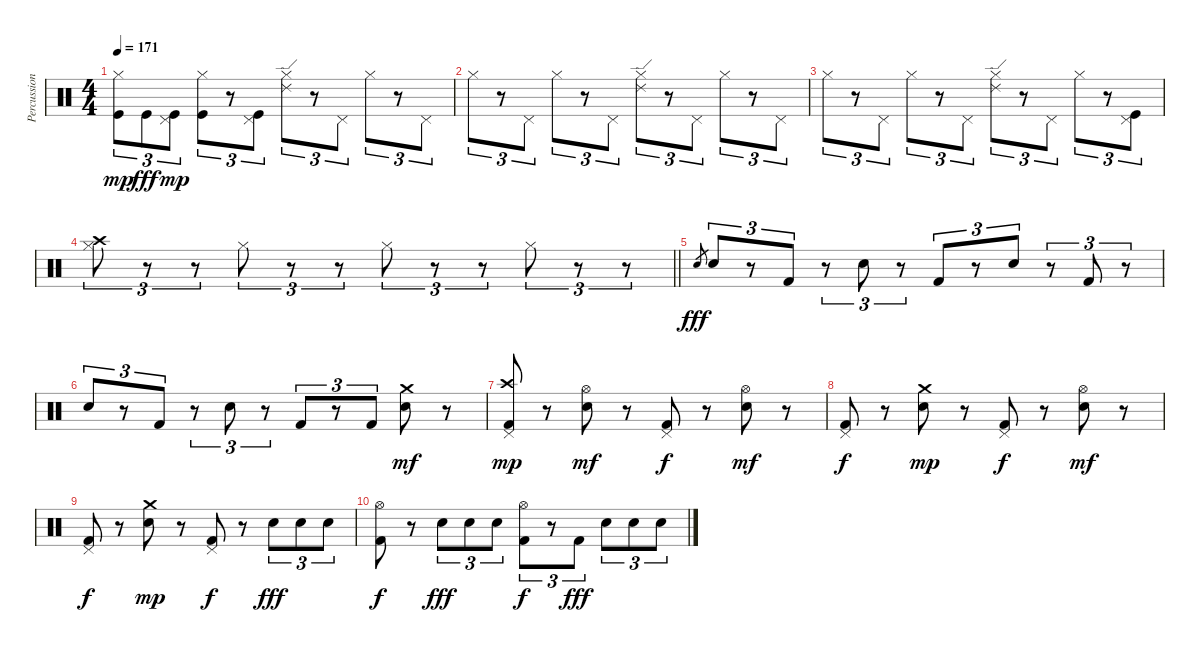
\track ("Percussions" "Percussion") {instrument percussion}
\staff {score}
\articulation defaults
\ts (4 4)
\tempo 171
\clef neutral
\ks c
("Kick (hit)" "Hi-Hat (closed)").8{tu (3 2) dy mp} "Kick (hit)".8{tu (3 2) dy fff} ("Kick (hit)" "Pedal Hi-Hat (hit)").8{tu (3 2) dy mp} ("Kick (hit)" "Hi-Hat (closed)").8{tu (3 2)} r.8{tu (3 2)} ("Kick (hit)" "Pedal Hi-Hat (hit)").8{tu (3 2)} ("Hi-Hat (closed)" "Ride (edge) 2").8{tu (3 2)} r.8{tu (3 2)} "Pedal Hi-Hat (hit)".8{tu (3 2)} "Hi-Hat (closed)".8{tu (3 2)} r.8{tu (3 2)} "Pedal Hi-Hat (hit)".8{tu (3 2)} |
"Hi-Hat (closed)".8{tu (3 2)} r.8{tu (3 2)} "Pedal Hi-Hat (hit)".8{tu (3 2)} "Hi-Hat (closed)".8{tu (3 2)} r.8{tu (3 2)} "Pedal Hi-Hat (hit)".8{tu (3 2)} ("Hi-Hat (closed)" "Ride (edge) 2").8{tu (3 2)} r.8{tu (3 2)} "Pedal Hi-Hat (hit)".8{tu (3 2)} "Hi-Hat (closed)".8{tu (3 2)} r.8{tu (3 2)} "Pedal Hi-Hat (hit)".8{tu (3 2)} |
"Hi-Hat (closed)".8{tu (3 2)} r.8{tu (3 2)} "Pedal Hi-Hat (hit)".8{tu (3 2)} "Hi-Hat (closed)".8{tu (3 2)} r.8{tu (3 2)} "Pedal Hi-Hat (hit)".8{tu (3 2)} ("Hi-Hat (closed)" "Ride (edge) 2").8{tu (3 2)} r.8{tu (3 2)} "Pedal Hi-Hat (hit)".8{tu (3 2)} "Hi-Hat (closed)".8{tu (3 2)} r.8{tu (3 2)} ("Kick (hit)" "Pedal Hi-Hat (hit)").8{tu (3 2)} |
\barLineRight lightlight
("Hi-Hat (closed)" "Crash high (hit)").8{tu (3 2)} r.8{tu (3 2)} r.8{tu (3 2)} "Hi-Hat (closed)".8{tu (3 2)} r.8{tu (3 2)} r.8{tu (3 2)} "Hi-Hat (closed)".8{tu (3 2)} r.8{tu (3 2)} r.8{tu (3 2)} "Hi-Hat (closed)".8{tu (3 2)} r.8{tu (3 2)} r.8{tu (3 2)} |
\section ("" "")
"Electric Snare (hit)".8{gr dy fff} "Electric Snare (hit)".8{tu (3 2)} r.8{tu (3 2)} "Kick (hit) 2".8{tu (3 2)} r.8{tu (3 2)} "Electric Snare (hit)".8{tu (3 2)} r.8{tu (3 2)} "Kick (hit) 2".8{tu (3 2)} r.8{tu (3 2)} "Electric Snare (hit)".8{tu (3 2)} r.8{tu (3 2)} "Kick (hit) 2".8{tu (3 2)} r.8{tu (3 2)} |
"Electric Snare (hit)".8{tu (3 2)} r.8{tu (3 2)} "Kick (hit) 2".8{tu (3 2)} r.8{tu (3 2)} "Electric Snare (hit)".8{tu (3 2)} r.8{tu (3 2)} "Kick (hit) 2".8{tu (3 2)} r.8{tu (3 2)} "Kick (hit) 2".8{tu (3 2)} ("Electric Snare (hit)" "Crash medium (hit)").8{dy mf} r.8 |
("Kick (hit) 2" "Pedal Hi-Hat (hit)" "Crash high (hit)").8{dy mp} r.8 ("Electric Snare (hit)" "Hi-Hat (open)").8{dy mf} r.8 ("Kick (hit) 2" "Pedal Hi-Hat (hit)").8{dy f} r.8 ("Electric Snare (hit)" "Hi-Hat (open)").8{dy mf} r.8 |
("Kick (hit) 2" "Pedal Hi-Hat (hit)").8{dy f} r.8 ("Electric Snare (hit)" "Crash medium (hit)").8{dy mp} r.8 ("Kick (hit) 2" "Pedal Hi-Hat (hit)").8{dy f} r.8 ("Electric Snare (hit)" "Hi-Hat (open)").8{dy mf} r.8 |
("Kick (hit) 2" "Pedal Hi-Hat (hit)").8{dy f} r.8 ("Electric Snare (hit)" "Crash medium (hit)").8{dy mp} r.8 ("Kick (hit) 2" "Pedal Hi-Hat (hit)").8{dy f} r.8 "Electric Snare (hit)".8{tu (3 2) dy fff} "Electric Snare (hit)".8{tu (3 2)} "Electric Snare (hit)".8{tu (3 2)} |
("Kick (hit) 2" "Hi-Hat (open)").8{dy f} r.8 "Electric Snare (hit)".8{tu (3 2) dy fff} "Electric Snare (hit)".8{tu (3 2)} "Electric Snare (hit)".8{tu (3 2)} ("Kick (hit) 2" "Hi-Hat (open)").8{tu (3 2) dy f} r.8{tu (3 2)} "Kick (hit) 2".8{tu (3 2) dy fff} "Electric Snare (hit)".8{tu (3 2)} "Electric Snare (hit)".8{tu (3 2)} "Electric Snare (hit)".8{tu (3 2)}
